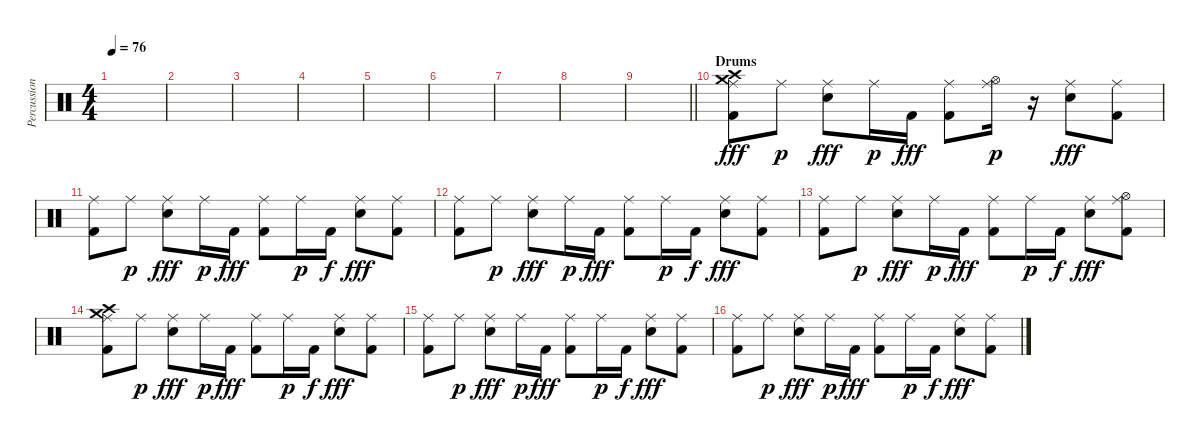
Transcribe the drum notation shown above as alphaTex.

\track ("Percussions" "Percussion") {instrument percussion}
\staff {score}
\articulation defaults
\ts (4 4)
\tempo 76
\clef neutral
\ks c
|
|
|
|
|
|
|
|
\barLineRight lightlight
|
\section ("" "Drums")
("Ride (middle)" "Crash medium (hit)" "Crash high (hit)" "Kick (hit) 2").8{dy fff volume 5} "Ride (middle)".8{dy p} ("Ride (middle)" "Electric Snare (hit)").8{dy fff} "Ride (middle)".16{dy p} "Kick (hit) 2".16{dy fff} ("Ride (middle)" "Kick (hit) 2").8 ("Ride (middle)" "Hi-Hat (open)").16{dy p} r.16 ("Ride (middle)" "Electric Snare (hit)").8{dy fff} ("Ride (middle)" "Kick (hit) 2").8 |
("Ride (middle)" "Kick (hit) 2").8 "Ride (middle)".8{dy p} ("Ride (middle)" "Electric Snare (hit)").8{dy fff} "Ride (middle)".16{dy p} "Kick (hit) 2".16{dy fff} ("Ride (middle)" "Kick (hit) 2").8 "Ride (middle)".16{dy p} "Kick (hit) 2".16{dy f} ("Ride (middle)" "Electric Snare (hit)").8{dy fff} ("Ride (middle)" "Kick (hit) 2").8 |
("Ride (middle)" "Kick (hit) 2").8 "Ride (middle)".8{dy p} ("Ride (middle)" "Electric Snare (hit)").8{dy fff} "Ride (middle)".16{dy p} "Kick (hit) 2".16{dy fff} ("Ride (middle)" "Kick (hit) 2").8 "Ride (middle)".16{dy p} "Kick (hit) 2".16{dy f} ("Ride (middle)" "Electric Snare (hit)").8{dy fff} ("Ride (middle)" "Kick (hit) 2").8 |
("Ride (middle)" "Kick (hit) 2").8 "Ride (middle)".8{dy p} ("Ride (middle)" "Electric Snare (hit)").8{dy fff} "Ride (middle)".16{dy p} "Kick (hit) 2".16{dy fff} ("Ride (middle)" "Kick (hit) 2").8 "Ride (middle)".16{dy p} "Kick (hit) 2".16{dy f} ("Ride (middle)" "Electric Snare (hit)").8{dy fff} ("Ride (middle)" "Hi-Hat (open)" "Kick (hit) 2").8 |
("Ride (middle)" "Crash medium (hit)" "Crash high (hit)" "Kick (hit) 2").8 "Ride (middle)".8{dy p} ("Ride (middle)" "Electric Snare (hit)").8{dy fff} "Ride (middle)".16{dy p} "Kick (hit) 2".16{dy fff} ("Ride (middle)" "Kick (hit) 2").8 "Ride (middle)".16{dy p} "Kick (hit) 2".16{dy f} ("Ride (middle)" "Electric Snare (hit)").8{dy fff} ("Ride (middle)" "Kick (hit) 2").8 |
("Ride (middle)" "Kick (hit) 2").8 "Ride (middle)".8{dy p} ("Ride (middle)" "Electric Snare (hit)").8{dy fff} "Ride (middle)".16{dy p} "Kick (hit) 2".16{dy fff} ("Ride (middle)" "Kick (hit) 2").8 "Ride (middle)".16{dy p} "Kick (hit) 2".16{dy f} ("Ride (middle)" "Electric Snare (hit)").8{dy fff} ("Ride (middle)" "Kick (hit) 2").8 |
("Ride (middle)" "Kick (hit) 2").8 "Ride (middle)".8{dy p} ("Ride (middle)" "Electric Snare (hit)").8{dy fff} "Ride (middle)".16{dy p} "Kick (hit) 2".16{dy fff} ("Ride (middle)" "Kick (hit) 2").8 "Ride (middle)".16{dy p} "Kick (hit) 2".16{dy f} ("Ride (middle)" "Electric Snare (hit)").8{dy fff} ("Ride (middle)" "Kick (hit) 2").8
